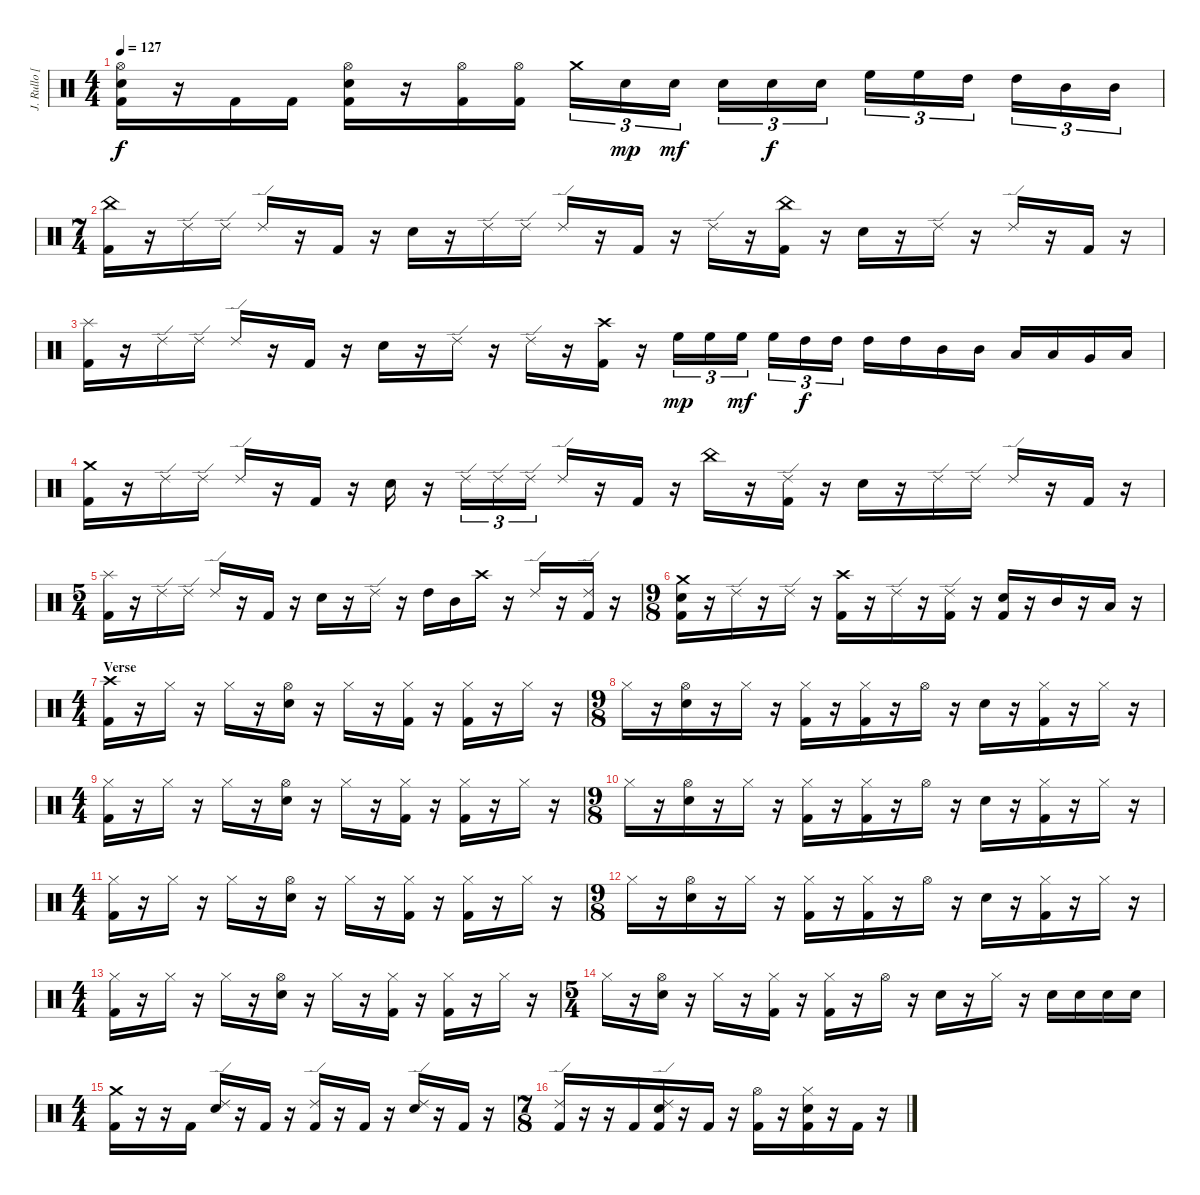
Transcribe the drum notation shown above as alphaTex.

\track ("J. Rullo [Drums]" "J. Rullo [") {instrument percussion}
\staff {score}
\articulation defaults
\ts (4 4)
\tempo 127
\clef neutral
\ks c
("Hi-Hat (open)" "Electric Snare (hit)" "Kick (hit) 2").16{dy f} r.16 "Kick (hit) 2".16 "Kick (hit) 2".16 ("Hi-Hat (open)" "Electric Snare (hit)" "Kick (hit) 2").16 r.16 ("Hi-Hat (open)" "Kick (hit) 2").16 ("Hi-Hat (open)" "Kick (hit) 2").16 "Crash medium (hit)".16{tu (3 2)} "Electric Snare (hit)".16{tu (3 2) dy mp} "Electric Snare (hit)".16{tu (3 2) dy mf} "Electric Snare (hit)".16{tu (3 2)} "Electric Snare (hit)".16{tu (3 2) dy f} "Electric Snare (hit)".16{tu (3 2)} "High Floor Tom (hit)".16{tu (3 2)} "High Floor Tom (hit)".16{tu (3 2)} "High Tom (hit)".16{tu (3 2)} "High Tom (hit)".16{tu (3 2)} "Mid Tom (hit)".16{tu (3 2)} "Mid Tom (hit)".16{tu (3 2)} |
\ts (7 4)
("China (hit)" "Kick (hit) 2").16 r.16 "Ride (edge) 2".16 "Ride (edge) 2".16 "Ride (edge) 2".16 r.16 "Kick (hit) 2".16 r.16 "Electric Snare (hit)".16 r.16 "Ride (edge) 2".16 "Ride (edge) 2".16 "Ride (edge) 2".16 r.16 "Kick (hit) 2".16 r.16 "Ride (edge) 2".16 r.16 ("China (hit)" "Kick (hit) 2").16 r.16 "Electric Snare (hit)".16 r.16 "Ride (edge) 2".16 r.16 "Ride (edge) 2".16 r.16 "Kick (hit) 2".16 r.16 |
("Splash (hit)" "Kick (hit) 2").16 r.16 "Ride (edge) 2".16 "Ride (edge) 2".16 "Ride (edge) 2".16 r.16 "Kick (hit) 2".16 r.16 "Electric Snare (hit)".16 r.16 "Ride (edge) 2".16 r.16 "Ride (edge) 2".16 r.16 ("Crash high (hit)" "Kick (hit) 2").16 r.16 "High Floor Tom (hit)".16{tu (3 2) dy mp} "High Floor Tom (hit)".16{tu (3 2)} "High Floor Tom (hit)".16{tu (3 2) dy mf} "High Floor Tom (hit)".16{tu (3 2)} "High Tom (hit)".16{tu (3 2) dy f} "High Tom (hit)".16{tu (3 2)} "High Tom (hit)".16 "High Tom (hit)".16 "Mid Tom (hit)".16 "Mid Tom (hit)".16 "Low Tom (hit)".16 "Low Tom (hit)".16 "Very Low Tom (hit)".16 "Low Floor Tom (hit)".16 |
("Crash medium (hit)" "Kick (hit) 2").16 r.16 "Ride (edge) 2".16 "Ride (edge) 2".16 "Ride (edge) 2".16 r.16 "Kick (hit) 2".16 r.16 "Electric Snare (hit)".16 r.16 "Ride (edge) 2".16{tu (3 2)} "Ride (edge) 2".16{tu (3 2)} "Ride (edge) 2".16{tu (3 2)} "Ride (edge) 2".16 r.16 "Kick (hit) 2".16 r.16 "China (hit)".16 r.16 ("Ride (edge) 2" "Kick (hit) 2").16 r.16 "Electric Snare (hit)".16 r.16 "Ride (edge) 2".16 "Ride (edge) 2".16 "Ride (edge) 2".16 r.16 "Kick (hit) 2".16 r.16 |
\ts (5 4)
("Splash (hit)" "Kick (hit) 2").16 r.16 "Ride (edge) 2".16 "Ride (edge) 2".16 "Ride (edge) 2".16 r.16 "Kick (hit) 2".16 r.16 "Electric Snare (hit)".16 r.16 "Ride (edge) 2".16 r.16 "High Tom (hit)".16 "Mid Tom (hit)".16 "Crash high (hit)".16 r.16 "Ride (edge) 2".16 r.16 ("Ride (edge) 2" "Kick (hit) 2").16 r.16 |
\ts (9 8)
("Crash medium (hit)" "Electric Snare (hit)" "Kick (hit) 2").16 r.16 "Ride (edge) 2".16 r.16 "Ride (edge) 2".16 r.16 ("Crash high (hit)" "Kick (hit) 2").16 r.16 "Ride (edge) 2".16 r.16 ("Ride (edge) 2" "Kick (hit) 2").16 r.16 ("Electric Snare (hit)" "Kick (hit) 2").16 r.16 "Mid Tom (hit)".16 r.16 "Low Tom (hit)".16 r.16 |
\ts (4 4)
\section ("" "Verse")
("Crash high (hit)" "Kick (hit) 2").16 r.16 "Hi-Hat (closed)".16 r.16 "Hi-Hat (closed)".16 r.16 ("Hi-Hat (open)" "Electric Snare (hit)").16 r.16 "Hi-Hat (closed)".16 r.16 ("Hi-Hat (closed)" "Kick (hit) 2").16 r.16 ("Hi-Hat (closed)" "Kick (hit) 2").16 r.16 "Hi-Hat (closed)".16 r.16 |
\ts (9 8)
"Hi-Hat (closed)".16 r.16 ("Hi-Hat (open)" "Electric Snare (hit)").16 r.16 "Hi-Hat (closed)".16 r.16 ("Hi-Hat (closed)" "Kick (hit) 2").16 r.16 ("Hi-Hat (closed)" "Kick (hit) 2").16 r.16 "Hi-Hat (open)".16 r.16 "Electric Snare (hit)".16 r.16 ("Hi-Hat (closed)" "Kick (hit) 2").16 r.16 "Hi-Hat (closed)".16 r.16 |
\ts (4 4)
("Hi-Hat (closed)" "Kick (hit) 2").16 r.16 "Hi-Hat (closed)".16 r.16 "Hi-Hat (closed)".16 r.16 ("Hi-Hat (open)" "Electric Snare (hit)").16 r.16 "Hi-Hat (closed)".16 r.16 ("Hi-Hat (closed)" "Kick (hit) 2").16 r.16 ("Hi-Hat (closed)" "Kick (hit) 2").16 r.16 "Hi-Hat (closed)".16 r.16 |
\ts (9 8)
"Hi-Hat (closed)".16 r.16 ("Hi-Hat (open)" "Electric Snare (hit)").16 r.16 "Hi-Hat (closed)".16 r.16 ("Hi-Hat (closed)" "Kick (hit) 2").16 r.16 ("Hi-Hat (closed)" "Kick (hit) 2").16 r.16 "Hi-Hat (open)".16 r.16 "Electric Snare (hit)".16 r.16 ("Hi-Hat (closed)" "Kick (hit) 2").16 r.16 "Hi-Hat (closed)".16 r.16 |
\ts (4 4)
("Hi-Hat (closed)" "Kick (hit) 2").16 r.16 "Hi-Hat (closed)".16 r.16 "Hi-Hat (closed)".16 r.16 ("Hi-Hat (open)" "Electric Snare (hit)").16 r.16 "Hi-Hat (closed)".16 r.16 ("Hi-Hat (closed)" "Kick (hit) 2").16 r.16 ("Hi-Hat (closed)" "Kick (hit) 2").16 r.16 "Hi-Hat (closed)".16 r.16 |
\ts (9 8)
"Hi-Hat (closed)".16 r.16 ("Hi-Hat (open)" "Electric Snare (hit)").16 r.16 "Hi-Hat (closed)".16 r.16 ("Hi-Hat (closed)" "Kick (hit) 2").16 r.16 ("Hi-Hat (closed)" "Kick (hit) 2").16 r.16 "Hi-Hat (open)".16 r.16 "Electric Snare (hit)".16 r.16 ("Hi-Hat (closed)" "Kick (hit) 2").16 r.16 "Hi-Hat (closed)".16 r.16 |
\ts (4 4)
("Hi-Hat (closed)" "Kick (hit) 2").16 r.16 "Hi-Hat (closed)".16 r.16 "Hi-Hat (closed)".16 r.16 ("Hi-Hat (open)" "Electric Snare (hit)").16 r.16 "Hi-Hat (closed)".16 r.16 ("Hi-Hat (closed)" "Kick (hit) 2").16 r.16 ("Hi-Hat (closed)" "Kick (hit) 2").16 r.16 "Hi-Hat (closed)".16 r.16 |
\ts (5 4)
"Hi-Hat (closed)".16 r.16 ("Hi-Hat (open)" "Electric Snare (hit)").16 r.16 "Hi-Hat (closed)".16 r.16 ("Hi-Hat (closed)" "Kick (hit) 2").16 r.16 ("Hi-Hat (closed)" "Kick (hit) 2").16 r.16 "Hi-Hat (open)".16 r.16 "Electric Snare (hit)".16 r.16 "Hi-Hat (closed)".16 r.16 "Electric Snare (hit)".16 "Electric Snare (hit)".16 "Electric Snare (hit)".16 "Electric Snare (hit)".16 |
\ts (4 4)
("Crash medium (hit)" "Kick (hit) 2").16 r.16 r.16 "Kick (hit) 2".16 ("Ride (edge) 2" "Electric Snare (hit)").16 r.16 "Kick (hit) 2".16 r.16 ("Ride (edge) 2" "Kick (hit) 2").16 r.16 "Kick (hit) 2".16 r.16 ("Ride (edge) 2" "Electric Snare (hit)").16 r.16 "Kick (hit) 2".16 r.16 |
\ts (7 8)
("Ride (edge) 2" "Kick (hit) 2").16 r.16 r.16 "Kick (hit) 2".16 ("Ride (edge) 2" "Electric Snare (hit)" "Kick (hit) 2").16 r.16 "Kick (hit) 2".16 r.16 ("Hi-Hat (open)" "Kick (hit) 2").16 r.16 ("Hi-Hat (closed)" "Electric Snare (hit)" "Kick (hit) 2").16 r.16 "Kick (hit) 2".16 r.16
